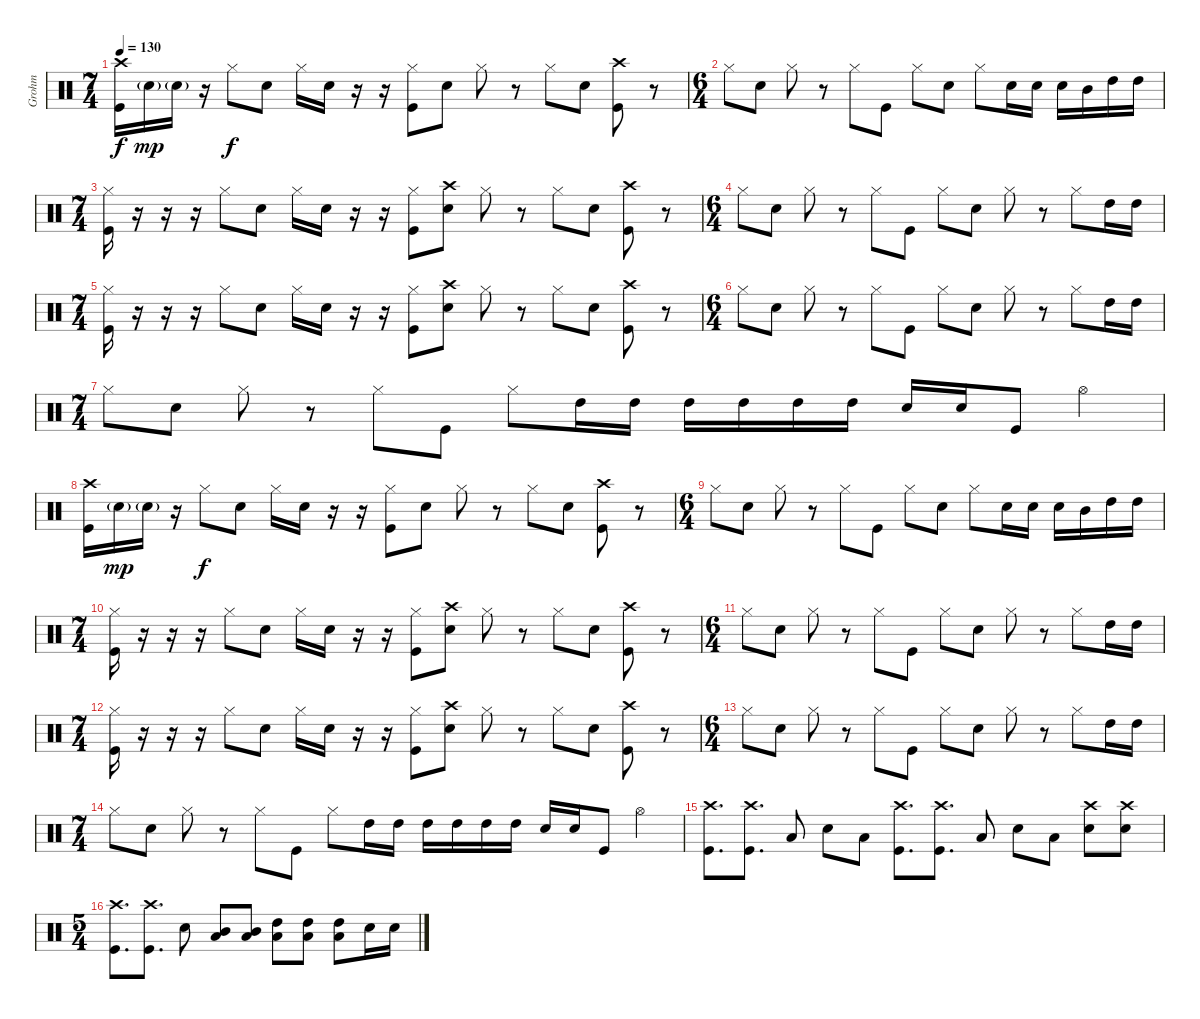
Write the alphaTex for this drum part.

\track ("Grohm" "Grohm") {instrument percussion}
\staff {score}
\articulation defaults
\ts (7 4)
\tempo 130
\clef neutral
\ks c
("Crash high (hit)" "Kick (hit)").16{dy f} "Snare (hit) 2"{g}.16{dy mp} "Snare (hit) 2"{g}.16 r.16 "Hi-Hat (closed)".8{dy f} "Snare (hit) 2".8 "Hi-Hat (closed)".16 "Snare (hit) 2".16 r.16 r.16 ("Hi-Hat (closed)" "Kick (hit)").8 "Snare (hit) 2".8 "Hi-Hat (closed)".8 r.8 "Hi-Hat (closed)".8 "Snare (hit) 2".8 ("Crash high (hit)" "Kick (hit)").8 r.8 |
\ts (6 4)
"Hi-Hat (closed)".8 "Snare (hit) 2".8 "Hi-Hat (closed)".8 r.8 "Hi-Hat (closed)".8 "Kick (hit)".8 "Hi-Hat (closed)".8 "Snare (hit) 2".8 "Hi-Hat (closed)".8 "Snare (hit) 2".16 "Snare (hit) 2".16 "Snare (hit) 2".16 "Mid Tom (hit)".16 "High Tom (hit)".16 "High Tom (hit)".16 |
\ts (7 4)
("Hi-Hat (closed)" "Kick (hit)").16 r.16 r.16 r.16 "Hi-Hat (closed)".8 "Snare (hit) 2".8 "Hi-Hat (closed)".16 "Snare (hit) 2".16 r.16 r.16 ("Hi-Hat (closed)" "Kick (hit)").8 ("Crash high (hit)" "Snare (hit) 2").8 "Hi-Hat (closed)".8 r.8 "Hi-Hat (closed)".8 "Snare (hit) 2".8 ("Crash high (hit)" "Kick (hit)").8 r.8 |
\ts (6 4)
"Hi-Hat (closed)".8 "Snare (hit) 2".8 "Hi-Hat (closed)".8 r.8 "Hi-Hat (closed)".8 "Kick (hit)".8 "Hi-Hat (closed)".8 "Snare (hit) 2".8 "Hi-Hat (closed)".8 r.8 "Hi-Hat (closed)".8 "High Tom (hit)".16 "High Tom (hit)".16 |
\ts (7 4)
("Hi-Hat (closed)" "Kick (hit)").16 r.16 r.16 r.16 "Hi-Hat (closed)".8 "Snare (hit) 2".8 "Hi-Hat (closed)".16 "Snare (hit) 2".16 r.16 r.16 ("Hi-Hat (closed)" "Kick (hit)").8 ("Crash high (hit)" "Snare (hit) 2").8 "Hi-Hat (closed)".8 r.8 "Hi-Hat (closed)".8 "Snare (hit) 2".8 ("Crash high (hit)" "Kick (hit)").8 r.8 |
\ts (6 4)
"Hi-Hat (closed)".8 "Snare (hit) 2".8 "Hi-Hat (closed)".8 r.8 "Hi-Hat (closed)".8 "Kick (hit)".8 "Hi-Hat (closed)".8 "Snare (hit) 2".8 "Hi-Hat (closed)".8 r.8 "Hi-Hat (closed)".8 "High Tom (hit)".16 "High Tom (hit)".16 |
\ts (7 4)
"Hi-Hat (closed)".8 "Snare (hit) 2".8 "Hi-Hat (closed)".8 r.8 "Hi-Hat (closed)".8 "Kick (hit)".8 "Hi-Hat (closed)".8 "High Tom (hit)".16 "High Tom (hit)".16 "High Tom (hit)".16 "High Tom (hit)".16 "High Tom (hit)".16 "High Tom (hit)".16 "Snare (hit) 2".16 "Snare (hit) 2".16 "Kick (hit)".8 "Hi-Hat (open)".4 |
("Crash high (hit)" "Kick (hit)").16 "Snare (hit) 2"{g}.16{dy mp} "Snare (hit) 2"{g}.16 r.16 "Hi-Hat (closed)".8{dy f} "Snare (hit) 2".8 "Hi-Hat (closed)".16 "Snare (hit) 2".16 r.16 r.16 ("Hi-Hat (closed)" "Kick (hit)").8 "Snare (hit) 2".8 "Hi-Hat (closed)".8 r.8 "Hi-Hat (closed)".8 "Snare (hit) 2".8 ("Crash high (hit)" "Kick (hit)").8 r.8 |
\ts (6 4)
"Hi-Hat (closed)".8 "Snare (hit) 2".8 "Hi-Hat (closed)".8 r.8 "Hi-Hat (closed)".8 "Kick (hit)".8 "Hi-Hat (closed)".8 "Snare (hit) 2".8 "Hi-Hat (closed)".8 "Snare (hit) 2".16 "Snare (hit) 2".16 "Snare (hit) 2".16 "Mid Tom (hit)".16 "High Tom (hit)".16 "High Tom (hit)".16 |
\ts (7 4)
("Hi-Hat (closed)" "Kick (hit)").16 r.16 r.16 r.16 "Hi-Hat (closed)".8 "Snare (hit) 2".8 "Hi-Hat (closed)".16 "Snare (hit) 2".16 r.16 r.16 ("Hi-Hat (closed)" "Kick (hit)").8 ("Crash high (hit)" "Snare (hit) 2").8 "Hi-Hat (closed)".8 r.8 "Hi-Hat (closed)".8 "Snare (hit) 2".8 ("Crash high (hit)" "Kick (hit)").8 r.8 |
\ts (6 4)
"Hi-Hat (closed)".8 "Snare (hit) 2".8 "Hi-Hat (closed)".8 r.8 "Hi-Hat (closed)".8 "Kick (hit)".8 "Hi-Hat (closed)".8 "Snare (hit) 2".8 "Hi-Hat (closed)".8 r.8 "Hi-Hat (closed)".8 "High Tom (hit)".16 "High Tom (hit)".16 |
\ts (7 4)
("Hi-Hat (closed)" "Kick (hit)").16 r.16 r.16 r.16 "Hi-Hat (closed)".8 "Snare (hit) 2".8 "Hi-Hat (closed)".16 "Snare (hit) 2".16 r.16 r.16 ("Hi-Hat (closed)" "Kick (hit)").8 ("Crash high (hit)" "Snare (hit) 2").8 "Hi-Hat (closed)".8 r.8 "Hi-Hat (closed)".8 "Snare (hit) 2".8 ("Crash high (hit)" "Kick (hit)").8 r.8 |
\ts (6 4)
"Hi-Hat (closed)".8 "Snare (hit) 2".8 "Hi-Hat (closed)".8 r.8 "Hi-Hat (closed)".8 "Kick (hit)".8 "Hi-Hat (closed)".8 "Snare (hit) 2".8 "Hi-Hat (closed)".8 r.8 "Hi-Hat (closed)".8 "High Tom (hit)".16 "High Tom (hit)".16 |
\ts (7 4)
"Hi-Hat (closed)".8 "Snare (hit) 2".8 "Hi-Hat (closed)".8 r.8 "Hi-Hat (closed)".8 "Kick (hit)".8 "Hi-Hat (closed)".8 "High Tom (hit)".16 "High Tom (hit)".16 "High Tom (hit)".16 "High Tom (hit)".16 "High Tom (hit)".16 "High Tom (hit)".16 "Snare (hit) 2".16 "Snare (hit) 2".16 "Kick (hit)".8 "Hi-Hat (open)".4 |
("Crash high (hit)" "Kick (hit)").8{d} ("Crash high (hit)" "Kick (hit)").8{d} "Low Tom (hit)".8 "Snare (hit) 2".8 "Low Tom (hit)".8 ("Crash high (hit)" "Kick (hit)").8{d} ("Crash high (hit)" "Kick (hit)").8{d} "Low Tom (hit)".8 "Snare (hit) 2".8 "Low Tom (hit)".8 ("Crash high (hit)" "Snare (hit) 2").8 ("Crash high (hit)" "Snare (hit) 2").8 |
\ts (5 4)
("Crash high (hit)" "Kick (hit)").8{d} ("Crash high (hit)" "Kick (hit)").8{d} "Snare (hit) 2".8 ("Mid Tom (hit)" "Low Tom (hit)").8 ("Mid Tom (hit)" "Low Tom (hit)").8 ("High Tom (hit)" "Low Tom (hit)").8 ("High Tom (hit)" "Low Tom (hit)").8 ("High Tom (hit)" "Low Tom (hit)").8 "Snare (hit) 2".16 "Snare (hit) 2".16
